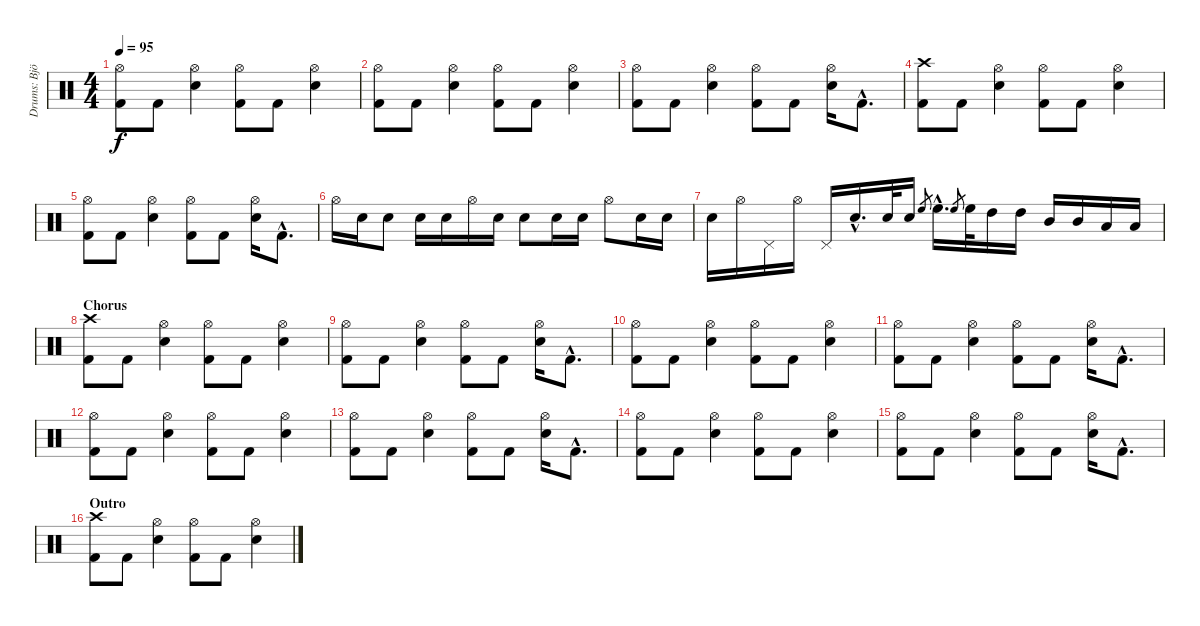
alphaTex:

\track ("Drums: Björn Fryklund" "Drums: Bjö") {instrument percussion}
\staff {score}
\articulation defaults
\ts (4 4)
\tempo 95
\clef neutral
\ks c
("Hi-Hat (open)" "Kick (hit) 2").8{dy f} "Kick (hit) 2".8 ("Hi-Hat (open)" "Snare (hit) 2").4 ("Hi-Hat (open)" "Kick (hit) 2").8 "Kick (hit) 2".8 ("Hi-Hat (open)" "Snare (hit) 2").4 |
("Hi-Hat (open)" "Kick (hit) 2").8 "Kick (hit) 2".8 ("Hi-Hat (open)" "Snare (hit) 2").4 ("Hi-Hat (open)" "Kick (hit) 2").8 "Kick (hit) 2".8 ("Hi-Hat (open)" "Snare (hit) 2").4 |
("Hi-Hat (open)" "Kick (hit) 2").8 "Kick (hit) 2".8 ("Hi-Hat (open)" "Snare (hit) 2").4 ("Hi-Hat (open)" "Kick (hit) 2").8 "Kick (hit) 2".8 ("Hi-Hat (open)" "Snare (hit) 2").16 "Kick (hit) 2"{hac}.8{d} |
("Crash high (hit)" "Kick (hit) 2").8 "Kick (hit) 2".8 ("Hi-Hat (open)" "Snare (hit) 2").4 ("Hi-Hat (open)" "Kick (hit) 2").8 "Kick (hit) 2".8 ("Hi-Hat (open)" "Snare (hit) 2").4 |
("Hi-Hat (open)" "Kick (hit) 2").8 "Kick (hit) 2".8 ("Hi-Hat (open)" "Snare (hit) 2").4 ("Hi-Hat (open)" "Kick (hit) 2").8 "Kick (hit) 2".8 ("Hi-Hat (open)" "Snare (hit) 2").16 "Kick (hit) 2"{hac}.8{d} |
"Hi-Hat (open)".16 "Snare (hit) 2".16 "Snare (hit) 2".8 "Snare (hit) 2".16 "Snare (hit) 2".16 "Hi-Hat (open)".16 "Snare (hit) 2".16 "Snare (hit) 2".8 "Snare (hit) 2".16 "Snare (hit) 2".16 "Hi-Hat (open)".8 "Snare (hit) 2".16 "Snare (hit) 2".16 |
"Snare (hit) 2".16 "Hi-Hat (open)".16 "Pedal Hi-Hat (hit)".16 "Hi-Hat (open)".16 "Pedal Hi-Hat (hit)".16 "Snare (hit) 2"{hac}.16{d} "Snare (hit) 2".32 "Snare (hit) 2".16 "High Floor Tom (hit)".8{gr} "High Floor Tom (hit)"{hac}.16{d} "High Floor Tom (hit)".8{gr} "High Floor Tom (hit)".32 "High Tom (hit)".16 "High Tom (hit)".16 "Mid Tom (hit)".16 "Mid Tom (hit)".16 "Low Tom (hit)".16 "Low Tom (hit)".16 |
\section ("" "Chorus")
("Crash high (hit)" "Kick (hit) 2").8 "Kick (hit) 2".8 ("Hi-Hat (open)" "Snare (hit) 2").4 ("Hi-Hat (open)" "Kick (hit) 2").8 "Kick (hit) 2".8 ("Hi-Hat (open)" "Snare (hit) 2").4 |
("Hi-Hat (open)" "Kick (hit) 2").8 "Kick (hit) 2".8 ("Hi-Hat (open)" "Snare (hit) 2").4 ("Hi-Hat (open)" "Kick (hit) 2").8 "Kick (hit) 2".8 ("Hi-Hat (open)" "Snare (hit) 2").16 "Kick (hit) 2"{hac}.8{d} |
("Hi-Hat (open)" "Kick (hit) 2").8 "Kick (hit) 2".8 ("Hi-Hat (open)" "Snare (hit) 2").4 ("Hi-Hat (open)" "Kick (hit) 2").8 "Kick (hit) 2".8 ("Hi-Hat (open)" "Snare (hit) 2").4 |
("Hi-Hat (open)" "Kick (hit) 2").8 "Kick (hit) 2".8 ("Hi-Hat (open)" "Snare (hit) 2").4 ("Hi-Hat (open)" "Kick (hit) 2").8 "Kick (hit) 2".8 ("Hi-Hat (open)" "Snare (hit) 2").16 "Kick (hit) 2"{hac}.8{d} |
("Hi-Hat (open)" "Kick (hit) 2").8 "Kick (hit) 2".8 ("Hi-Hat (open)" "Snare (hit) 2").4 ("Hi-Hat (open)" "Kick (hit) 2").8 "Kick (hit) 2".8 ("Hi-Hat (open)" "Snare (hit) 2").4 |
("Hi-Hat (open)" "Kick (hit) 2").8 "Kick (hit) 2".8 ("Hi-Hat (open)" "Snare (hit) 2").4 ("Hi-Hat (open)" "Kick (hit) 2").8 "Kick (hit) 2".8 ("Hi-Hat (open)" "Snare (hit) 2").16 "Kick (hit) 2"{hac}.8{d} |
("Hi-Hat (open)" "Kick (hit) 2").8 "Kick (hit) 2".8 ("Hi-Hat (open)" "Snare (hit) 2").4 ("Hi-Hat (open)" "Kick (hit) 2").8 "Kick (hit) 2".8 ("Hi-Hat (open)" "Snare (hit) 2").4 |
("Hi-Hat (open)" "Kick (hit) 2").8 "Kick (hit) 2".8 ("Hi-Hat (open)" "Snare (hit) 2").4 ("Hi-Hat (open)" "Kick (hit) 2").8 "Kick (hit) 2".8 ("Hi-Hat (open)" "Snare (hit) 2").16 "Kick (hit) 2"{hac}.8{d} |
\section ("" "Outro")
("Crash high (hit)" "Kick (hit) 2").8 "Kick (hit) 2".8 ("Hi-Hat (open)" "Snare (hit) 2").4 ("Hi-Hat (open)" "Kick (hit) 2").8 "Kick (hit) 2".8 ("Hi-Hat (open)" "Snare (hit) 2").4
